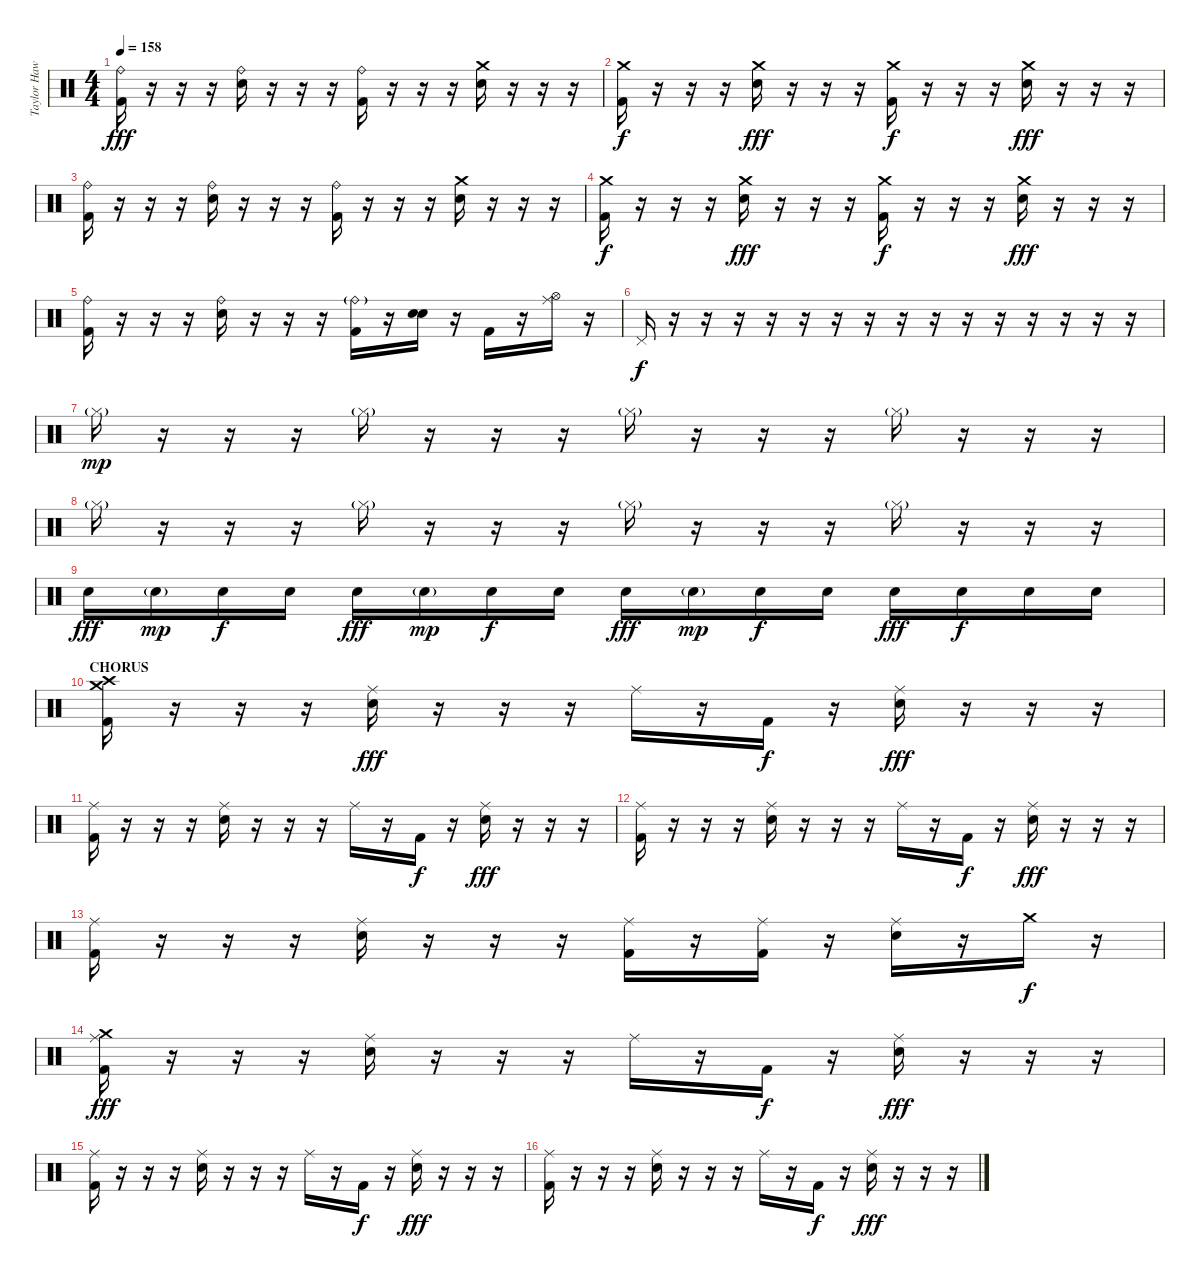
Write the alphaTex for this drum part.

\track ("Taylor Hawkins (Drums)" "Taylor Haw") {instrument percussion}
\staff {score}
\articulation defaults
\ts (4 4)
\tempo 158
\clef neutral
\ks c
("Ride (bell)" "Kick (hit) 2").16{dy fff} r.16 r.16 r.16 ("Ride (bell)" "Electric Snare (hit)").16 r.16 r.16 r.16 ("Ride (bell)" "Kick (hit) 2").16 r.16 r.16 r.16 ("Crash medium (hit)" "Electric Snare (hit)").16 r.16 r.16 r.16 |
("Crash medium (hit)" "Kick (hit) 2").16{dy f} r.16 r.16 r.16 ("Crash medium (hit)" "Electric Snare (hit)").16{dy fff} r.16 r.16 r.16 ("Crash medium (hit)" "Kick (hit) 2").16{dy f} r.16 r.16 r.16 ("Crash medium (hit)" "Electric Snare (hit)").16{dy fff} r.16 r.16 r.16 |
("Ride (bell)" "Kick (hit) 2").16 r.16 r.16 r.16 ("Ride (bell)" "Electric Snare (hit)").16 r.16 r.16 r.16 ("Ride (bell)" "Kick (hit) 2").16 r.16 r.16 r.16 ("Crash medium (hit)" "Electric Snare (hit)").16 r.16 r.16 r.16 |
("Crash medium (hit)" "Kick (hit) 2").16{dy f} r.16 r.16 r.16 ("Crash medium (hit)" "Electric Snare (hit)").16{dy fff} r.16 r.16 r.16 ("Crash medium (hit)" "Kick (hit) 2").16{dy f} r.16 r.16 r.16 ("Crash medium (hit)" "Electric Snare (hit)").16{dy fff} r.16 r.16 r.16 |
("Ride (bell)" "Kick (hit) 2").16 r.16 r.16 r.16 ("Ride (bell)" "Electric Snare (hit)").16 r.16 r.16 r.16 ("Ride (bell)"{g} "Kick (hit) 2").16 r.16 ("Electric Snare (hit)" "Electric Snare (hit)").16{bu 120} r.16 "Kick (hit) 2".16 r.16 ("Ride (middle)" "Hi-Hat (open)").16 r.16 |
"Pedal Hi-Hat (hit)".16{dy f} r.16 r.16 r.16 r.16 r.16 r.16 r.16 r.16 r.16 r.16 r.16 r.16 r.16 r.16 r.16 |
"Hi-Hat (closed)"{g}.16{dy mp} r.16 r.16 r.16 "Hi-Hat (closed)"{g}.16 r.16 r.16 r.16 "Hi-Hat (closed)"{g}.16 r.16 r.16 r.16 "Hi-Hat (closed)"{g}.16 r.16 r.16 r.16 |
"Hi-Hat (closed)"{g}.16 r.16 r.16 r.16 "Hi-Hat (closed)"{g}.16 r.16 r.16 r.16 "Hi-Hat (closed)"{g}.16 r.16 r.16 r.16 "Hi-Hat (closed)"{g}.16 r.16 r.16 r.16 |
"Electric Snare (hit)".16{dy fff} "Electric Snare (hit)"{g}.16{dy mp} "Electric Snare (hit)".16{dy f} "Electric Snare (hit)".16 "Electric Snare (hit)".16{dy fff} "Electric Snare (hit)"{g}.16{dy mp} "Electric Snare (hit)".16{dy f} "Electric Snare (hit)".16 "Electric Snare (hit)".16{dy fff} "Electric Snare (hit)"{g}.16{dy mp} "Electric Snare (hit)".16{dy f} "Electric Snare (hit)".16 "Electric Snare (hit)".16{dy fff} "Electric Snare (hit)".16{dy f} "Electric Snare (hit)".16 "Electric Snare (hit)".16 |
\section ("" "CHORUS")
("Crash high (hit)" "Crash medium (hit)" "Kick (hit) 2").16 r.16 r.16 r.16 ("Ride (middle)" "Electric Snare (hit)").16{dy fff} r.16 r.16 r.16 "Ride (middle)".16 r.16 "Kick (hit) 2".16{dy f} r.16 ("Ride (middle)" "Electric Snare (hit)").16{dy fff} r.16 r.16 r.16 |
("Ride (middle)" "Kick (hit) 2").16 r.16 r.16 r.16 ("Ride (middle)" "Electric Snare (hit)").16 r.16 r.16 r.16 "Ride (middle)".16 r.16 "Kick (hit) 2".16{dy f} r.16 ("Ride (middle)" "Electric Snare (hit)").16{dy fff} r.16 r.16 r.16 |
("Ride (middle)" "Kick (hit) 2").16 r.16 r.16 r.16 ("Ride (middle)" "Electric Snare (hit)").16 r.16 r.16 r.16 "Ride (middle)".16 r.16 "Kick (hit) 2".16{dy f} r.16 ("Ride (middle)" "Electric Snare (hit)").16{dy fff} r.16 r.16 r.16 |
("Ride (middle)" "Kick (hit) 2").16 r.16 r.16 r.16 ("Ride (middle)" "Electric Snare (hit)").16 r.16 r.16 r.16 ("Ride (middle)" "Kick (hit) 2").16 r.16 ("Ride (middle)" "Kick (hit) 2").16 r.16 ("Ride (middle)" "Electric Snare (hit)").16 r.16 "Crash medium (hit)".16{dy f} r.16 |
("Ride (middle)" "Crash medium (hit)" "Kick (hit) 2").16{dy fff} r.16 r.16 r.16 ("Ride (middle)" "Electric Snare (hit)").16 r.16 r.16 r.16 "Ride (middle)".16 r.16 "Kick (hit) 2".16{dy f} r.16 ("Ride (middle)" "Electric Snare (hit)").16{dy fff} r.16 r.16 r.16 |
("Ride (middle)" "Kick (hit) 2").16 r.16 r.16 r.16 ("Ride (middle)" "Electric Snare (hit)").16 r.16 r.16 r.16 "Ride (middle)".16 r.16 "Kick (hit) 2".16{dy f} r.16 ("Ride (middle)" "Electric Snare (hit)").16{dy fff} r.16 r.16 r.16 |
("Ride (middle)" "Kick (hit) 2").16 r.16 r.16 r.16 ("Ride (middle)" "Electric Snare (hit)").16 r.16 r.16 r.16 "Ride (middle)".16 r.16 "Kick (hit) 2".16{dy f} r.16 ("Ride (middle)" "Electric Snare (hit)").16{dy fff} r.16 r.16 r.16
